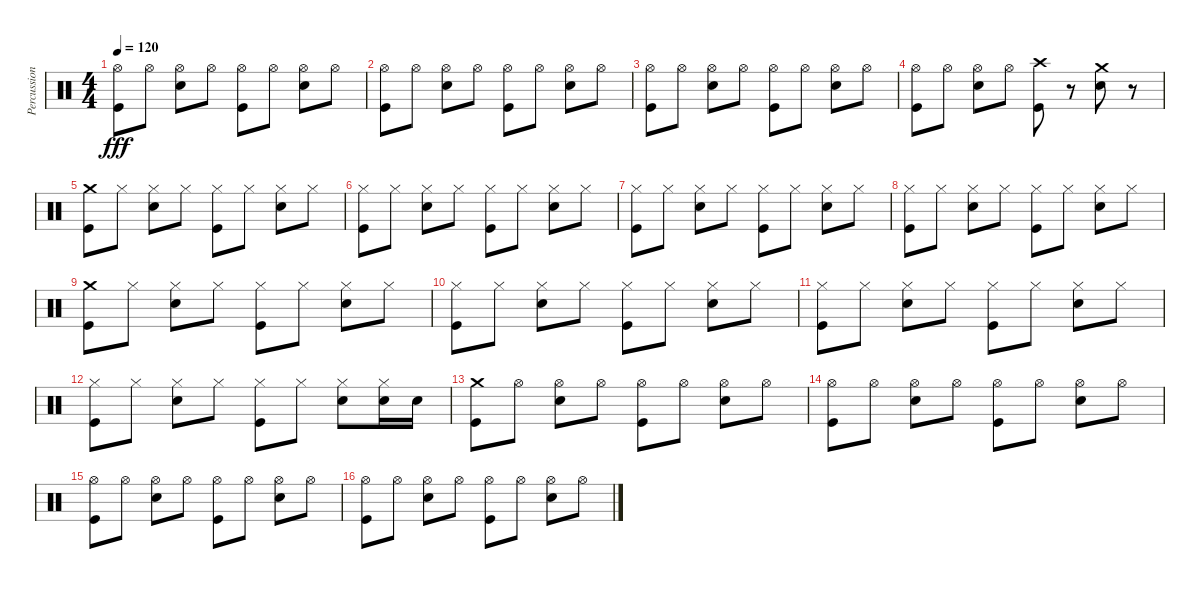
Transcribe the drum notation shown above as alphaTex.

\track ("Percussions" "Percussion") {instrument percussion}
\staff {score}
\articulation defaults
\ts (4 4)
\tempo 120
\clef neutral
\ks c
("Hi-Hat (open)" "Kick (hit)").8{dy fff} "Hi-Hat (open)".8 ("Hi-Hat (open)" "Snare (hit) 2").8 "Hi-Hat (open)".8 ("Hi-Hat (open)" "Kick (hit)").8 "Hi-Hat (open)".8 ("Hi-Hat (open)" "Snare (hit) 2").8 "Hi-Hat (open)".8 |
("Hi-Hat (open)" "Kick (hit)").8 "Hi-Hat (open)".8 ("Hi-Hat (open)" "Snare (hit) 2").8 "Hi-Hat (open)".8 ("Hi-Hat (open)" "Kick (hit)").8 "Hi-Hat (open)".8 ("Hi-Hat (open)" "Snare (hit) 2").8 "Hi-Hat (open)".8 |
("Hi-Hat (open)" "Kick (hit)").8 "Hi-Hat (open)".8 ("Hi-Hat (open)" "Snare (hit) 2").8 "Hi-Hat (open)".8 ("Hi-Hat (open)" "Kick (hit)").8 "Hi-Hat (open)".8 ("Hi-Hat (open)" "Snare (hit) 2").8 "Hi-Hat (open)".8 |
("Hi-Hat (open)" "Kick (hit)").8 "Hi-Hat (open)".8 ("Hi-Hat (open)" "Snare (hit) 2").8 "Hi-Hat (open)".8 ("Crash high (hit)" "Kick (hit)").8 r.8 ("Crash medium (hit)" "Snare (hit) 2").8 r.8 |
("Crash medium (hit)" "Kick (hit)").8 "Hi-Hat (closed)".8 ("Hi-Hat (closed)" "Snare (hit) 2").8 "Hi-Hat (closed)".8 ("Hi-Hat (closed)" "Kick (hit)").8 "Hi-Hat (closed)".8 ("Hi-Hat (closed)" "Snare (hit) 2").8 "Hi-Hat (closed)".8 |
("Hi-Hat (closed)" "Kick (hit)").8 "Hi-Hat (closed)".8 ("Hi-Hat (closed)" "Snare (hit) 2").8 "Hi-Hat (closed)".8 ("Hi-Hat (closed)" "Kick (hit)").8 "Hi-Hat (closed)".8 ("Hi-Hat (closed)" "Snare (hit) 2").8 "Hi-Hat (closed)".8 |
("Hi-Hat (closed)" "Kick (hit)").8 "Hi-Hat (closed)".8 ("Hi-Hat (closed)" "Snare (hit) 2").8 "Hi-Hat (closed)".8 ("Hi-Hat (closed)" "Kick (hit)").8 "Hi-Hat (closed)".8 ("Hi-Hat (closed)" "Snare (hit) 2").8 "Hi-Hat (closed)".8 |
("Hi-Hat (closed)" "Kick (hit)").8 "Hi-Hat (closed)".8 ("Hi-Hat (closed)" "Snare (hit) 2").8 "Hi-Hat (closed)".8 ("Hi-Hat (closed)" "Kick (hit)").8 "Hi-Hat (closed)".8 ("Hi-Hat (closed)" "Snare (hit) 2").8 "Hi-Hat (closed)".8 |
("Crash medium (hit)" "Kick (hit)").8 "Hi-Hat (closed)".8 ("Hi-Hat (closed)" "Snare (hit) 2").8 "Hi-Hat (closed)".8 ("Hi-Hat (closed)" "Kick (hit)").8 "Hi-Hat (closed)".8 ("Hi-Hat (closed)" "Snare (hit) 2").8 "Hi-Hat (closed)".8 |
("Hi-Hat (closed)" "Kick (hit)").8 "Hi-Hat (closed)".8 ("Hi-Hat (closed)" "Snare (hit) 2").8 "Hi-Hat (closed)".8 ("Hi-Hat (closed)" "Kick (hit)").8 "Hi-Hat (closed)".8 ("Hi-Hat (closed)" "Snare (hit) 2").8 "Hi-Hat (closed)".8 |
("Hi-Hat (closed)" "Kick (hit)").8 "Hi-Hat (closed)".8 ("Hi-Hat (closed)" "Snare (hit) 2").8 "Hi-Hat (closed)".8 ("Hi-Hat (closed)" "Kick (hit)").8 "Hi-Hat (closed)".8 ("Hi-Hat (closed)" "Snare (hit) 2").8 "Hi-Hat (closed)".8 |
("Hi-Hat (closed)" "Kick (hit)").8 "Hi-Hat (closed)".8 ("Hi-Hat (closed)" "Snare (hit) 2").8 "Hi-Hat (closed)".8 ("Hi-Hat (closed)" "Kick (hit)").8 "Hi-Hat (closed)".8 ("Hi-Hat (closed)" "Snare (hit) 2").8 ("Hi-Hat (closed)" "Snare (hit) 2").16 "Snare (hit) 2".16 |
("Crash medium (hit)" "Kick (hit)").8 "Hi-Hat (open)".8 ("Hi-Hat (open)" "Snare (hit) 2").8 "Hi-Hat (open)".8 ("Hi-Hat (open)" "Kick (hit)").8 "Hi-Hat (open)".8 ("Hi-Hat (open)" "Snare (hit) 2").8 "Hi-Hat (open)".8 |
("Hi-Hat (open)" "Kick (hit)").8 "Hi-Hat (open)".8 ("Hi-Hat (open)" "Snare (hit) 2").8 "Hi-Hat (open)".8 ("Hi-Hat (open)" "Kick (hit)").8 "Hi-Hat (open)".8 ("Hi-Hat (open)" "Snare (hit) 2").8 "Hi-Hat (open)".8 |
("Hi-Hat (open)" "Kick (hit)").8 "Hi-Hat (open)".8 ("Hi-Hat (open)" "Snare (hit) 2").8 "Hi-Hat (open)".8 ("Hi-Hat (open)" "Kick (hit)").8 "Hi-Hat (open)".8 ("Hi-Hat (open)" "Snare (hit) 2").8 "Hi-Hat (open)".8 |
("Hi-Hat (open)" "Kick (hit)").8 "Hi-Hat (open)".8 ("Hi-Hat (open)" "Snare (hit) 2").8 "Hi-Hat (open)".8 ("Hi-Hat (open)" "Kick (hit)").8 "Hi-Hat (open)".8 ("Hi-Hat (open)" "Snare (hit) 2").8 "Hi-Hat (open)".8
